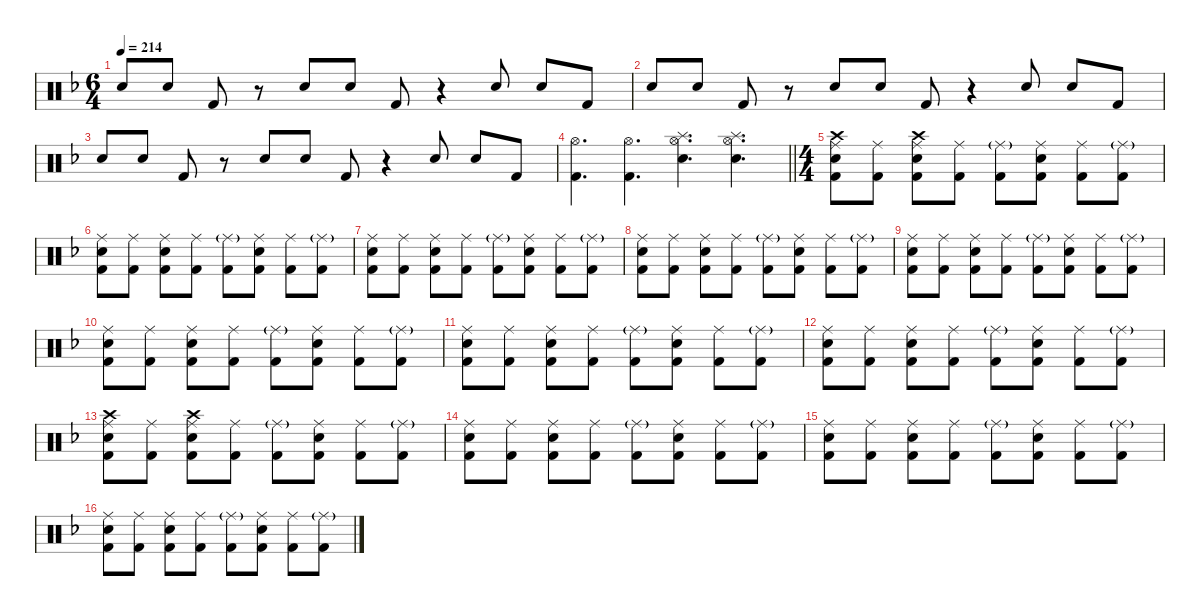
\hideDynamics
\bracketExtendMode nobrackets
\singleTrackTrackNamePolicy hidden
\multiTrackTrackNamePolicy hidden
\firstSystemTrackNameMode fullname
\firstSystemTrackNameOrientation horizontal
\otherSystemsTrackNameOrientation horizontal
\track ("Drumkit" "Drums") {defaultSystemsLayout 4 instrument percussion}
\staff {score}
\articulation defaults
\ts (6 4)
\tempo 214
\clef neutral
\ks dminor "Snare (hit) 2"{acc forcenatural}.8{dy ff beam Up} "Snare (hit) 2"{acc forcenatural}.8{beam Up} "Kick (hit) 2"{acc forcenatural}.8{beam Up}
r.8{beam Up} "Snare (hit) 2"{acc forcenatural}.8{beam Up} "Snare (hit) 2"{acc forcenatural}.8{beam Up} "Kick (hit) 2"{acc forcenatural}.8{beam Up} r.4{beam Up} "Snare (hit) 2"{acc forcenatural}.8{beam Up} "Snare (hit) 2"{acc forcenatural}.8{beam Up} "Kick (hit) 2"{acc forcenatural}.8{beam Up} |
"Snare (hit) 2"{acc forcenatural}.8{beam Up} "Snare (hit) 2"{acc forcenatural}.8{beam Up} "Kick (hit) 2"{acc forcenatural}.8{beam Up} r.8{beam Up} "Snare (hit) 2"{acc forcenatural}.8{beam Up} "Snare (hit) 2"{acc forcenatural}.8{beam Up} "Kick (hit) 2"{acc forcenatural}.8{beam Up} r.4{beam Up} "Snare (hit) 2"{acc forcenatural}.8{beam Up} "Snare (hit) 2"{acc forcenatural}.8{beam Up} "Kick (hit) 2"{acc forcenatural}.8{beam Up} |
"Snare (hit) 2"{acc forcenatural}.8{beam Up} "Snare (hit) 2"{acc forcenatural}.8{beam Up} "Kick (hit) 2"{acc forcenatural}.8{beam Up} r.8{beam Up} "Snare (hit) 2"{acc forcenatural}.8{beam Up} "Snare (hit) 2"{acc forcenatural}.8{beam Up} "Kick (hit) 2"{acc forcenatural}.8{beam Up} r.4{beam Up} "Snare (hit) 2"{acc forcenatural}.8{beam Up} "Snare (hit) 2"{acc forcenatural}.8{beam Up} "Kick (hit) 2"{acc forcenatural}.8{beam Up} |
\barLineRight lightlight
("Hi-Hat (open)"{acc forcenatural} "Kick (hit) 2"{acc forcenatural}).4{d dy mp beam Down} ("Hi-Hat (open)"{acc forcenatural} "Kick (hit) 2"{acc forcenatural}).4{d beam Down} ("Splash (hit)"{acc forcenatural} "Hi-Hat (open)"{acc forcenatural} "Snare (hit) 2"{acc forcenatural}).4{d dy f beam Down} ("Splash (hit)"{acc forcenatural} "Hi-Hat (open)"{acc forcenatural} "Snare (hit) 2"{acc forcenatural}).4{d beam Down} |
\ts (4 4)
("Crash high (hit)"{acc forcenatural} "Ride (middle)"{acc forcenatural} "Snare (hit) 2"{acc forcenatural} "Kick (hit) 2"{acc forcenatural}).8{beam Down} ("Ride (middle)"{acc forcenatural} "Kick (hit) 2"{acc forcenatural}).8{dy mf beam Down} ("Crash high (hit)"{acc forcenatural} "Ride (middle)"{acc forcenatural} "Snare (hit) 2"{acc forcenatural} "Kick (hit) 2"{acc forcenatural}).8{dy f beam Down} ("Ride (middle)"{acc forcenatural} "Kick (hit) 2"{acc forcenatural}).8{dy mf beam Down} ("Ride (middle)"{g acc forcenatural} "Kick (hit) 2"{acc forcenatural}).8{dy f beam Down} ("Ride (middle)"{acc forcenatural} "Snare (hit) 2"{acc forcenatural} "Kick (hit) 2"{acc forcenatural}).8{dy mf beam Down} ("Ride (middle)"{acc forcenatural} "Kick (hit) 2"{acc forcenatural}).8{beam Down} ("Ride (middle)"{g acc forcenatural} "Kick (hit) 2"{acc forcenatural}).8{dy f beam Down} |
("Ride (middle)"{acc forcenatural} "Snare (hit) 2"{acc forcenatural} "Kick (hit) 2"{acc forcenatural}).8{dy mf beam Down} ("Ride (middle)"{acc forcenatural} "Kick (hit) 2"{acc forcenatural}).8{beam Down} ("Ride (middle)"{acc forcenatural} "Snare (hit) 2"{acc forcenatural} "Kick (hit) 2"{acc forcenatural}).8{beam Down} ("Ride (middle)"{acc forcenatural} "Kick (hit) 2"{acc forcenatural}).8{beam Down} ("Ride (middle)"{g acc forcenatural} "Kick (hit) 2"{acc forcenatural}).8{dy f beam Down} ("Ride (middle)"{acc forcenatural} "Snare (hit) 2"{acc forcenatural} "Kick (hit) 2"{acc forcenatural}).8{dy mf beam Down} ("Ride (middle)"{acc forcenatural} "Kick (hit) 2"{acc forcenatural}).8{beam Down} ("Ride (middle)"{g acc forcenatural} "Kick (hit) 2"{acc forcenatural}).8{dy f beam Down} |
("Ride (middle)"{acc forcenatural} "Snare (hit) 2"{acc forcenatural} "Kick (hit) 2"{acc forcenatural}).8{dy mf beam Down} ("Ride (middle)"{acc forcenatural} "Kick (hit) 2"{acc forcenatural}).8{beam Down} ("Ride (middle)"{acc forcenatural} "Snare (hit) 2"{acc forcenatural} "Kick (hit) 2"{acc forcenatural}).8{beam Down} ("Ride (middle)"{acc forcenatural} "Kick (hit) 2"{acc forcenatural}).8{beam Down} ("Ride (middle)"{g acc forcenatural} "Kick (hit) 2"{acc forcenatural}).8{dy f beam Down} ("Ride (middle)"{acc forcenatural} "Snare (hit) 2"{acc forcenatural} "Kick (hit) 2"{acc forcenatural}).8{dy mf beam Down} ("Ride (middle)"{acc forcenatural} "Kick (hit) 2"{acc forcenatural}).8{beam Down} ("Ride (middle)"{g acc forcenatural} "Kick (hit) 2"{acc forcenatural}).8{dy f beam Down} |
("Ride (middle)"{acc forcenatural} "Snare (hit) 2"{acc forcenatural} "Kick (hit) 2"{acc forcenatural}).8{dy mf beam Down} ("Ride (middle)"{acc forcenatural} "Kick (hit) 2"{acc forcenatural}).8{beam Down} ("Ride (middle)"{acc forcenatural} "Snare (hit) 2"{acc forcenatural} "Kick (hit) 2"{acc forcenatural}).8{beam Down} ("Ride (middle)"{acc forcenatural} "Kick (hit) 2"{acc forcenatural}).8{beam Down} ("Ride (middle)"{g acc forcenatural} "Kick (hit) 2"{acc forcenatural}).8{dy f beam Down} ("Ride (middle)"{acc forcenatural} "Snare (hit) 2"{acc forcenatural} "Kick (hit) 2"{acc forcenatural}).8{dy mf beam Down} ("Ride (middle)"{acc forcenatural} "Kick (hit) 2"{acc forcenatural}).8{beam Down} ("Ride (middle)"{g acc forcenatural} "Kick (hit) 2"{acc forcenatural}).8{dy f beam Down} |
("Ride (middle)"{acc forcenatural} "Snare (hit) 2"{acc forcenatural} "Kick (hit) 2"{acc forcenatural}).8{dy mf beam Down} ("Ride (middle)"{acc forcenatural} "Kick (hit) 2"{acc forcenatural}).8{beam Down} ("Ride (middle)"{acc forcenatural} "Snare (hit) 2"{acc forcenatural} "Kick (hit) 2"{acc forcenatural}).8{beam Down} ("Ride (middle)"{acc forcenatural} "Kick (hit) 2"{acc forcenatural}).8{beam Down} ("Ride (middle)"{g acc forcenatural} "Kick (hit) 2"{acc forcenatural}).8{dy f beam Down} ("Ride (middle)"{acc forcenatural} "Snare (hit) 2"{acc forcenatural} "Kick (hit) 2"{acc forcenatural}).8{dy mf beam Down} ("Ride (middle)"{acc forcenatural} "Kick (hit) 2"{acc forcenatural}).8{beam Down} ("Ride (middle)"{g acc forcenatural} "Kick (hit) 2"{acc forcenatural}).8{dy f beam Down} |
("Ride (middle)"{acc forcenatural} "Snare (hit) 2"{acc forcenatural} "Kick (hit) 2"{acc forcenatural}).8{dy mf beam Down} ("Ride (middle)"{acc forcenatural} "Kick (hit) 2"{acc forcenatural}).8{beam Down} ("Ride (middle)"{acc forcenatural} "Snare (hit) 2"{acc forcenatural} "Kick (hit) 2"{acc forcenatural}).8{beam Down} ("Ride (middle)"{acc forcenatural} "Kick (hit) 2"{acc forcenatural}).8{beam Down} ("Ride (middle)"{g acc forcenatural} "Kick (hit) 2"{acc forcenatural}).8{dy f beam Down} ("Ride (middle)"{acc forcenatural} "Snare (hit) 2"{acc forcenatural} "Kick (hit) 2"{acc forcenatural}).8{dy mf beam Down} ("Ride (middle)"{acc forcenatural} "Kick (hit) 2"{acc forcenatural}).8{beam Down} ("Ride (middle)"{g acc forcenatural} "Kick (hit) 2"{acc forcenatural}).8{dy f beam Down} |
("Ride (middle)"{acc forcenatural} "Snare (hit) 2"{acc forcenatural} "Kick (hit) 2"{acc forcenatural}).8{dy mf beam Down} ("Ride (middle)"{acc forcenatural} "Kick (hit) 2"{acc forcenatural}).8{beam Down} ("Ride (middle)"{acc forcenatural} "Snare (hit) 2"{acc forcenatural} "Kick (hit) 2"{acc forcenatural}).8{beam Down} ("Ride (middle)"{acc forcenatural} "Kick (hit) 2"{acc forcenatural}).8{beam Down} ("Ride (middle)"{g acc forcenatural} "Kick (hit) 2"{acc forcenatural}).8{dy f beam Down} ("Ride (middle)"{acc forcenatural} "Snare (hit) 2"{acc forcenatural} "Kick (hit) 2"{acc forcenatural}).8{dy mf beam Down} ("Ride (middle)"{acc forcenatural} "Kick (hit) 2"{acc forcenatural}).8{beam Down} ("Ride (middle)"{g acc forcenatural} "Kick (hit) 2"{acc forcenatural}).8{dy f beam Down} |
("Ride (middle)"{acc forcenatural} "Snare (hit) 2"{acc forcenatural} "Kick (hit) 2"{acc forcenatural}).8{dy mf beam Down} ("Ride (middle)"{acc forcenatural} "Kick (hit) 2"{acc forcenatural}).8{beam Down} ("Ride (middle)"{acc forcenatural} "Snare (hit) 2"{acc forcenatural} "Kick (hit) 2"{acc forcenatural}).8{beam Down} ("Ride (middle)"{acc forcenatural} "Kick (hit) 2"{acc forcenatural}).8{beam Down} ("Ride (middle)"{g acc forcenatural} "Kick (hit) 2"{acc forcenatural}).8{dy f beam Down} ("Ride (middle)"{acc forcenatural} "Snare (hit) 2"{acc forcenatural} "Kick (hit) 2"{acc forcenatural}).8{dy mf beam Down} ("Ride (middle)"{acc forcenatural} "Kick (hit) 2"{acc forcenatural}).8{beam Down} ("Ride (middle)"{g acc forcenatural} "Kick (hit) 2"{acc forcenatural}).8{dy f beam Down} |
("Crash high (hit)"{acc forcenatural} "Ride (middle)"{acc forcenatural} "Snare (hit) 2"{acc forcenatural} "Kick (hit) 2"{acc forcenatural}).8{beam Down} ("Ride (middle)"{acc forcenatural} "Kick (hit) 2"{acc forcenatural}).8{dy mf beam Down} ("Crash high (hit)"{acc forcenatural} "Ride (middle)"{acc forcenatural} "Snare (hit) 2"{acc forcenatural} "Kick (hit) 2"{acc forcenatural}).8{dy f beam Down} ("Ride (middle)"{acc forcenatural} "Kick (hit) 2"{acc forcenatural}).8{dy mf beam Down} ("Ride (middle)"{g acc forcenatural} "Kick (hit) 2"{acc forcenatural}).8{dy f beam Down} ("Ride (middle)"{acc forcenatural} "Snare (hit) 2"{acc forcenatural} "Kick (hit) 2"{acc forcenatural}).8{dy mf beam Down} ("Ride (middle)"{acc forcenatural} "Kick (hit) 2"{acc forcenatural}).8{beam Down} ("Ride (middle)"{g acc forcenatural} "Kick (hit) 2"{acc forcenatural}).8{dy f beam Down} |
("Ride (middle)"{acc forcenatural} "Snare (hit) 2"{acc forcenatural} "Kick (hit) 2"{acc forcenatural}).8{dy mf beam Down} ("Ride (middle)"{acc forcenatural} "Kick (hit) 2"{acc forcenatural}).8{beam Down} ("Ride (middle)"{acc forcenatural} "Snare (hit) 2"{acc forcenatural} "Kick (hit) 2"{acc forcenatural}).8{beam Down} ("Ride (middle)"{acc forcenatural} "Kick (hit) 2"{acc forcenatural}).8{beam Down} ("Ride (middle)"{g acc forcenatural} "Kick (hit) 2"{acc forcenatural}).8{dy f beam Down} ("Ride (middle)"{acc forcenatural} "Snare (hit) 2"{acc forcenatural} "Kick (hit) 2"{acc forcenatural}).8{dy mf beam Down} ("Ride (middle)"{acc forcenatural} "Kick (hit) 2"{acc forcenatural}).8{beam Down} ("Ride (middle)"{g acc forcenatural} "Kick (hit) 2"{acc forcenatural}).8{dy f beam Down} |
("Ride (middle)"{acc forcenatural} "Snare (hit) 2"{acc forcenatural} "Kick (hit) 2"{acc forcenatural}).8{dy mf beam Down} ("Ride (middle)"{acc forcenatural} "Kick (hit) 2"{acc forcenatural}).8{beam Down} ("Ride (middle)"{acc forcenatural} "Snare (hit) 2"{acc forcenatural} "Kick (hit) 2"{acc forcenatural}).8{beam Down} ("Ride (middle)"{acc forcenatural} "Kick (hit) 2"{acc forcenatural}).8{beam Down} ("Ride (middle)"{g acc forcenatural} "Kick (hit) 2"{acc forcenatural}).8{dy f beam Down} ("Ride (middle)"{acc forcenatural} "Snare (hit) 2"{acc forcenatural} "Kick (hit) 2"{acc forcenatural}).8{dy mf beam Down} ("Ride (middle)"{acc forcenatural} "Kick (hit) 2"{acc forcenatural}).8{beam Down} ("Ride (middle)"{g acc forcenatural} "Kick (hit) 2"{acc forcenatural}).8{dy f beam Down} |
("Ride (middle)"{acc forcenatural} "Snare (hit) 2"{acc forcenatural} "Kick (hit) 2"{acc forcenatural}).8{dy mf beam Down} ("Ride (middle)"{acc forcenatural} "Kick (hit) 2"{acc forcenatural}).8{beam Down} ("Ride (middle)"{acc forcenatural} "Snare (hit) 2"{acc forcenatural} "Kick (hit) 2"{acc forcenatural}).8{beam Down} ("Ride (middle)"{acc forcenatural} "Kick (hit) 2"{acc forcenatural}).8{beam Down} ("Ride (middle)"{g acc forcenatural} "Kick (hit) 2"{acc forcenatural}).8{dy f beam Down} ("Ride (middle)"{acc forcenatural} "Snare (hit) 2"{acc forcenatural} "Kick (hit) 2"{acc forcenatural}).8{dy mf beam Down} ("Ride (middle)"{acc forcenatural} "Kick (hit) 2"{acc forcenatural}).8{beam Down} ("Ride (middle)"{g acc forcenatural} "Kick (hit) 2"{acc forcenatural}).8{dy f beam Down}
